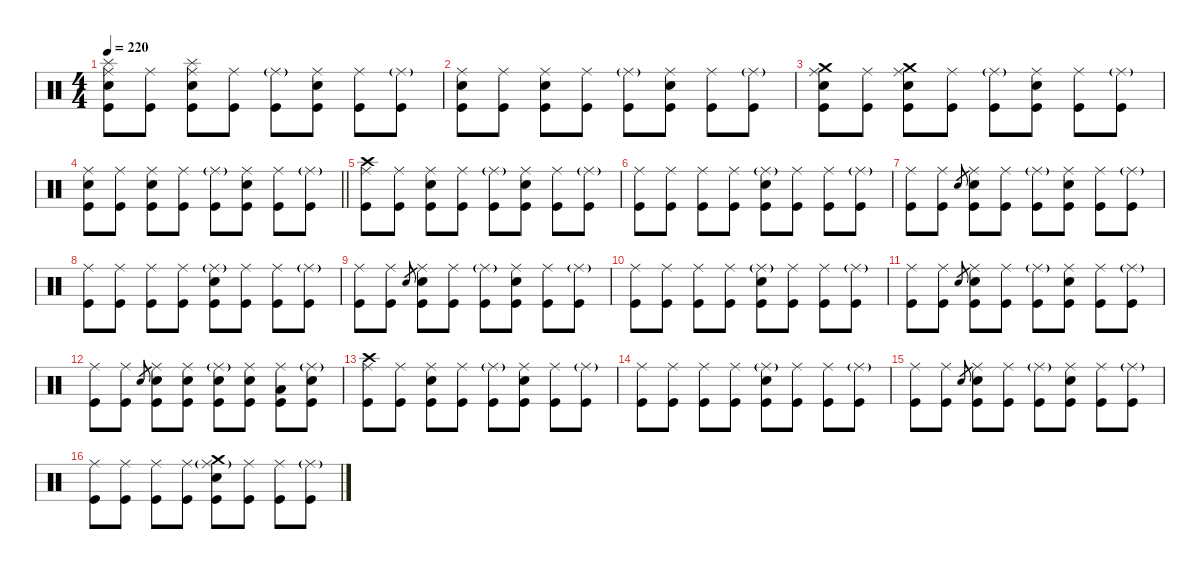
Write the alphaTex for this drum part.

\defaultSystemsLayout 4
\hideDynamics
\bracketExtendMode nobrackets
\singleTrackTrackNamePolicy hidden
\multiTrackTrackNamePolicy hidden
\firstSystemTrackNameMode fullname
\firstSystemTrackNameOrientation horizontal
\otherSystemsTrackNameOrientation horizontal
\track ("Drums" "drm.") {instrument percussion}
\staff {score}
\articulation defaults
\ts (4 4)
\tempo 220
\clef neutral
\ks c
("Splash (hit)" "Ride (middle)" "Snare (hit) 2" "Kick (hit)").8{dy f beam Down} ("Ride (middle)" "Kick (hit)").8{dy mf beam Down} ("Splash (hit)" "Ride (middle)" "Snare (hit) 2" "Kick (hit)").8{dy f beam Down} ("Ride (middle)" "Kick (hit)").8{dy mf beam Down} ("Ride (middle)"{g} "Kick (hit)").8{dy f beam Down} ("Ride (middle)" "Snare (hit) 2" "Kick (hit)").8{dy mf beam Down} ("Ride (middle)" "Kick (hit)").8{beam Down} ("Ride (middle)"{g} "Kick (hit)").8{dy f beam Down} |
("Ride (middle)" "Snare (hit) 2" "Kick (hit)").8{dy mf beam Down} ("Ride (middle)" "Kick (hit)").8{beam Down} ("Ride (middle)" "Snare (hit) 2" "Kick (hit)").8{beam Down} ("Ride (middle)" "Kick (hit)").8{beam Down} ("Ride (middle)"{g} "Kick (hit)").8{dy f beam Down} ("Ride (middle)" "Snare (hit) 2" "Kick (hit)").8{dy mf beam Down} ("Ride (middle)" "Kick (hit)").8{beam Down} ("Ride (middle)"{g} "Kick (hit)").8{dy f beam Down} |
("Crash medium (hit)" "Ride (middle)" "Snare (hit) 2" "Kick (hit)").8{beam Down} ("Ride (middle)" "Kick (hit)").8{dy mf beam Down} ("Crash medium (hit)" "Ride (middle)" "Snare (hit) 2" "Kick (hit)").8{dy f beam Down} ("Ride (middle)" "Kick (hit)").8{dy mf beam Down} ("Ride (middle)"{g} "Kick (hit)").8{dy f beam Down} ("Ride (middle)" "Snare (hit) 2" "Kick (hit)").8{dy mf beam Down} ("Ride (middle)" "Kick (hit)").8{beam Down} ("Ride (middle)"{g} "Kick (hit)").8{dy f beam Down} |
\barLineRight lightlight
("Ride (middle)" "Snare (hit) 2" "Kick (hit)").8{dy mf beam Down} ("Ride (middle)" "Kick (hit)").8{beam Down} ("Ride (middle)" "Snare (hit) 2" "Kick (hit)").8{beam Down} ("Ride (middle)" "Kick (hit)").8{beam Down} ("Ride (middle)"{g} "Kick (hit)").8{dy f beam Down} ("Ride (middle)" "Snare (hit) 2" "Kick (hit)").8{dy mf beam Down} ("Ride (middle)" "Kick (hit)").8{beam Down} ("Ride (middle)"{g} "Kick (hit)").8{dy f beam Down} |
("Crash high (hit)" "Ride (middle)" "Kick (hit)").8{beam Down} ("Ride (middle)" "Kick (hit)").8{dy mf beam Down} ("Ride (middle)" "Snare (hit) 2" "Kick (hit)").8{beam Down} ("Ride (middle)" "Kick (hit)").8{beam Down} ("Ride (middle)"{g} "Kick (hit)").8{dy f beam Down} ("Ride (middle)" "Snare (hit) 2" "Kick (hit)").8{dy mf beam Down} ("Ride (middle)" "Kick (hit)").8{beam Down} ("Ride (middle)"{g} "Kick (hit)").8{dy f beam Down} |
("Ride (middle)" "Kick (hit)").8{dy mf beam Down} ("Ride (middle)" "Kick (hit)").8{beam Down} ("Ride (middle)" "Kick (hit)").8{beam Down} ("Ride (middle)" "Kick (hit)").8{beam Down} ("Ride (middle)"{g} "Snare (hit) 2" "Kick (hit)").8{dy f beam Down} ("Ride (middle)" "Kick (hit)").8{dy mf beam Down} ("Ride (middle)" "Kick (hit)").8{beam Down} ("Ride (middle)"{g} "Kick (hit)").8{dy f beam Down} |
("Ride (middle)" "Kick (hit)").8{dy mf beam Down} ("Ride (middle)" "Kick (hit)").8{beam Down} "Electric Snare (hit)".8{gr dy mp beam Up} ("Ride (middle)" "Snare (hit) 2" "Kick (hit)").8{dy mf beam Down} ("Ride (middle)" "Kick (hit)").8{beam Down} ("Ride (middle)"{g} "Kick (hit)").8{dy f beam Down} ("Ride (middle)" "Snare (hit) 2" "Kick (hit)").8{dy mf beam Down} ("Ride (middle)" "Kick (hit)").8{beam Down} ("Ride (middle)"{g} "Kick (hit)").8{dy f beam Down} |
("Ride (middle)" "Kick (hit)").8{dy mf beam Down} ("Ride (middle)" "Kick (hit)").8{beam Down} ("Ride (middle)" "Kick (hit)").8{beam Down} ("Ride (middle)" "Kick (hit)").8{beam Down} ("Ride (middle)"{g} "Snare (hit) 2" "Kick (hit)").8{dy f beam Down} ("Ride (middle)" "Kick (hit)").8{dy mf beam Down} ("Ride (middle)" "Kick (hit)").8{beam Down} ("Ride (middle)"{g} "Kick (hit)").8{dy f beam Down} |
("Ride (middle)" "Kick (hit)").8{dy mf beam Down} ("Ride (middle)" "Kick (hit)").8{beam Down} "Electric Snare (hit)".8{gr dy mp beam Up} ("Ride (middle)" "Snare (hit) 2" "Kick (hit)").8{dy mf beam Down} ("Ride (middle)" "Kick (hit)").8{beam Down} ("Ride (middle)"{g} "Kick (hit)").8{dy f beam Down} ("Ride (middle)" "Snare (hit) 2" "Kick (hit)").8{dy mf beam Down} ("Ride (middle)" "Kick (hit)").8{beam Down} ("Ride (middle)"{g} "Kick (hit)").8{dy f beam Down} |
("Ride (middle)" "Kick (hit)").8{dy mf beam Down} ("Ride (middle)" "Kick (hit)").8{beam Down} ("Ride (middle)" "Kick (hit)").8{beam Down} ("Ride (middle)" "Kick (hit)").8{beam Down} ("Ride (middle)"{g} "Snare (hit) 2" "Kick (hit)").8{dy f beam Down} ("Ride (middle)" "Kick (hit)").8{dy mf beam Down} ("Ride (middle)" "Kick (hit)").8{beam Down} ("Ride (middle)"{g} "Kick (hit)").8{dy f beam Down} |
("Ride (middle)" "Kick (hit)").8{dy mf beam Down} ("Ride (middle)" "Kick (hit)").8{beam Down} "Electric Snare (hit)".8{gr dy mp beam Up} ("Ride (middle)" "Snare (hit) 2" "Kick (hit)").8{dy mf beam Down} ("Ride (middle)" "Kick (hit)").8{beam Down} ("Ride (middle)"{g} "Kick (hit)").8{dy f beam Down} ("Ride (middle)" "Snare (hit) 2" "Kick (hit)").8{dy mf beam Down} ("Ride (middle)" "Kick (hit)").8{beam Down} ("Ride (middle)"{g} "Kick (hit)").8{dy f beam Down} |
("Ride (middle)" "Kick (hit)").8{dy mf beam Down} ("Ride (middle)" "Kick (hit)").8{beam Down} "Electric Snare (hit)".8{gr dy mp beam Up} ("Ride (middle)" "Snare (hit) 2" "Kick (hit)").8{dy mf beam Down} ("Ride (middle)" "Snare (hit) 2" "Kick (hit)").8{beam Down} ("Ride (middle)"{g} "Snare (hit) 2" "Kick (hit)").8{dy f beam Down} ("Ride (middle)" "Snare (hit) 2" "Kick (hit)").8{dy mf beam Down} ("Ride (middle)" "Low Tom (hit)" "Kick (hit)").8{beam Down} ("Ride (middle)"{g} "Snare (hit) 2" "Kick (hit)").8{dy f beam Down} |
("Crash high (hit)" "Ride (middle)" "Kick (hit)").8{beam Down} ("Ride (middle)" "Kick (hit)").8{dy mf beam Down} ("Ride (middle)" "Snare (hit) 2" "Kick (hit)").8{beam Down} ("Ride (middle)" "Kick (hit)").8{beam Down} ("Ride (middle)"{g} "Kick (hit)").8{dy f beam Down} ("Ride (middle)" "Snare (hit) 2" "Kick (hit)").8{dy mf beam Down} ("Ride (middle)" "Kick (hit)").8{beam Down} ("Ride (middle)"{g} "Kick (hit)").8{dy f beam Down} |
("Ride (middle)" "Kick (hit)").8{dy mf beam Down} ("Ride (middle)" "Kick (hit)").8{beam Down} ("Ride (middle)" "Kick (hit)").8{beam Down} ("Ride (middle)" "Kick (hit)").8{beam Down} ("Ride (middle)"{g} "Snare (hit) 2" "Kick (hit)").8{dy f beam Down} ("Ride (middle)" "Kick (hit)").8{dy mf beam Down} ("Ride (middle)" "Kick (hit)").8{beam Down} ("Ride (middle)"{g} "Kick (hit)").8{dy f beam Down} |
("Ride (middle)" "Kick (hit)").8{dy mf beam Down} ("Ride (middle)" "Kick (hit)").8{beam Down} "Electric Snare (hit)".8{gr dy mp beam Up} ("Ride (middle)" "Snare (hit) 2" "Kick (hit)").8{dy mf beam Down} ("Ride (middle)" "Kick (hit)").8{beam Down} ("Ride (middle)"{g} "Kick (hit)").8{dy f beam Down} ("Ride (middle)" "Snare (hit) 2" "Kick (hit)").8{dy mf beam Down} ("Ride (middle)" "Kick (hit)").8{beam Down} ("Ride (middle)"{g} "Kick (hit)").8{dy f beam Down} |
("Ride (middle)" "Kick (hit)").8{dy mf beam Down} ("Ride (middle)" "Kick (hit)").8{beam Down} ("Ride (middle)" "Kick (hit)").8{beam Down} ("Ride (middle)" "Kick (hit)").8{beam Down} ("Crash medium (hit)" "Ride (middle)"{g} "Snare (hit) 2" "Kick (hit)").8{beam Down} ("Ride (middle)" "Kick (hit)").8{beam Down} ("Ride (middle)" "Kick (hit)").8{beam Down} ("Ride (middle)"{g} "Kick (hit)").8{dy f beam Down}
